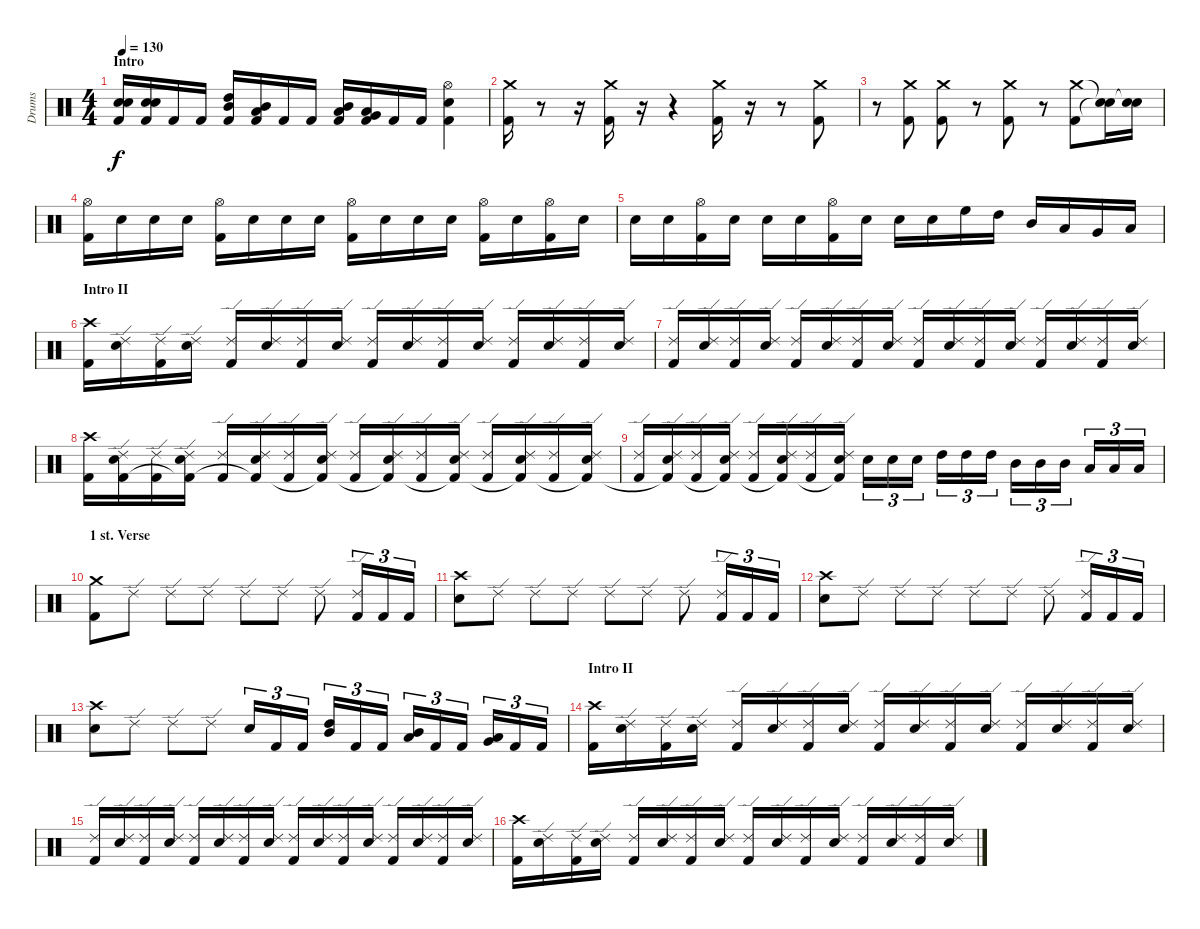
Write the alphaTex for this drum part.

\track ("Drums" "Drums") {instrument percussion}
\staff {score}
\articulation defaults
\ts (4 4)
\section ("" "Intro")
\tempo 130
\clef neutral
\ks c
("Snare (hit) 2" "Snare (hit) 2" "Kick (hit) 2").16{dy f} ("Snare (hit) 2" "Snare (hit) 2" "Kick (hit) 2").16 "Kick (hit) 2".16 "Kick (hit) 2".16 ("High Tom (hit)" "Mid Tom (hit)" "Kick (hit) 2").16 ("Mid Tom (hit)" "Low Tom (hit)" "Kick (hit) 2").16 "Kick (hit) 2".16 "Kick (hit) 2".16 ("Mid Tom (hit)" "Low Tom (hit)" "Kick (hit) 2").16 ("Low Tom (hit)" "Very Low Tom (hit)" "Kick (hit) 2").16 "Kick (hit) 2".16 "Kick (hit) 2".16 ("Hi-Hat (open)" "Snare (hit) 2" "Kick (hit) 2").4 |
("Crash medium (hit)" "Kick (hit) 2").16 r.8 r.16 ("Crash medium (hit)" "Kick (hit) 2").16 r.16 r.4 ("Crash medium (hit)" "Kick (hit) 2").16 r.16 r.8 ("Crash medium (hit)" "Kick (hit) 2").8 |
r.8 ("Crash medium (hit)" "Kick (hit) 2").8 ("Crash medium (hit)" "Kick (hit) 2").8 r.8 ("Crash medium (hit)" "Kick (hit) 2").8 r.8 ("Crash medium (hit)" "Kick (hit) 2").8 ("Snare (hit)"{t} "Snare (hit)"{t}).16 ("Snare (hit)"{t} "Snare (hit) 2").16 |
("Hi-Hat (open)" "Kick (hit) 2").16 "Snare (hit) 2".16 "Snare (hit) 2".16 "Snare (hit) 2".16 ("Hi-Hat (open)" "Kick (hit) 2").16 "Snare (hit) 2".16 "Snare (hit) 2".16 "Snare (hit) 2".16 ("Hi-Hat (open)" "Kick (hit) 2").16 "Snare (hit) 2".16 "Snare (hit) 2".16 "Snare (hit) 2".16 ("Hi-Hat (open)" "Kick (hit) 2").16 "Snare (hit) 2".16 ("Hi-Hat (open)" "Kick (hit) 2").16 "Snare (hit) 2".16 |
"Snare (hit) 2".16 "Snare (hit) 2".16 ("Hi-Hat (open)" "Kick (hit) 2").16 "Snare (hit) 2".16 "Snare (hit) 2".16 "Snare (hit) 2".16 ("Hi-Hat (open)" "Kick (hit) 2").16 "Snare (hit) 2".16 "Snare (hit) 2".16 "Snare (hit) 2".16 "High Floor Tom (hit)".16 "High Tom (hit)".16 "Mid Tom (hit)".16 "Low Tom (hit)".16 "Very Low Tom (hit)".16 "Low Floor Tom (hit)".16 |
\section ("" "Intro II")
("Crash high (hit)" "Kick (hit) 2").16 ("Ride (edge) 2" "Snare (hit) 2").16 ("Ride (edge) 2" "Kick (hit) 2").16 ("Ride (edge) 2" "Snare (hit) 2").16 ("Ride (edge) 2" "Kick (hit) 2").16 ("Ride (edge) 2" "Snare (hit) 2").16 ("Ride (edge) 2" "Kick (hit) 2").16 ("Ride (edge) 2" "Snare (hit) 2").16 ("Ride (edge) 2" "Kick (hit) 2").16 ("Ride (edge) 2" "Snare (hit) 2").16 ("Ride (edge) 2" "Kick (hit) 2").16 ("Ride (edge) 2" "Snare (hit) 2").16 ("Ride (edge) 2" "Kick (hit) 2").16 ("Ride (edge) 2" "Snare (hit) 2").16 ("Ride (edge) 2" "Kick (hit) 2").16 ("Ride (edge) 2" "Snare (hit) 2").16 |
("Ride (edge) 2" "Kick (hit) 2").16 ("Ride (edge) 2" "Snare (hit) 2").16 ("Ride (edge) 2" "Kick (hit) 2").16 ("Ride (edge) 2" "Snare (hit) 2").16 ("Ride (edge) 2" "Kick (hit) 2").16 ("Ride (edge) 2" "Snare (hit) 2").16 ("Ride (edge) 2" "Kick (hit) 2").16 ("Ride (edge) 2" "Snare (hit) 2").16 ("Ride (edge) 2" "Kick (hit) 2").16 ("Ride (edge) 2" "Snare (hit) 2").16 ("Ride (edge) 2" "Kick (hit) 2").16 ("Ride (edge) 2" "Snare (hit) 2").16 ("Ride (edge) 2" "Kick (hit) 2").16 ("Ride (edge) 2" "Snare (hit) 2").16 ("Ride (edge) 2" "Kick (hit) 2").16 ("Ride (edge) 2" "Snare (hit) 2").16 |
("Crash high (hit)" "Kick (hit) 2").16 ("Ride (edge) 2" "Snare (hit) 2" "Kick (hit) 2").16 ("Ride (edge) 2" "Kick (hit) 2").16 ("Ride (edge) 2" "Snare (hit) 2" "Kick (hit) 2"{t}).16 ("Ride (edge) 2" "Kick (hit) 2").16 ("Ride (edge) 2" "Snare (hit) 2" "Kick (hit) 2"{t}).16 ("Ride (edge) 2" "Kick (hit) 2").16 ("Ride (edge) 2" "Snare (hit) 2" "Kick (hit) 2"{t}).16 ("Ride (edge) 2" "Kick (hit) 2").16 ("Ride (edge) 2" "Snare (hit) 2" "Kick (hit) 2"{t}).16 ("Ride (edge) 2" "Kick (hit) 2").16 ("Ride (edge) 2" "Snare (hit) 2" "Kick (hit) 2"{t}).16 ("Ride (edge) 2" "Kick (hit) 2").16 ("Ride (edge) 2" "Snare (hit) 2" "Kick (hit) 2"{t}).16 ("Ride (edge) 2" "Kick (hit) 2").16 ("Ride (edge) 2" "Snare (hit) 2" "Kick (hit) 2"{t}).16 |
("Ride (edge) 2" "Kick (hit) 2").16 ("Ride (edge) 2" "Snare (hit) 2" "Kick (hit) 2"{t}).16 ("Ride (edge) 2" "Kick (hit) 2").16 ("Ride (edge) 2" "Snare (hit) 2" "Kick (hit) 2"{t}).16 ("Ride (edge) 2" "Kick (hit) 2").16 ("Ride (edge) 2" "Snare (hit) 2" "Kick (hit) 2"{t}).16 ("Ride (edge) 2" "Kick (hit) 2").16 ("Ride (edge) 2" "Snare (hit) 2" "Kick (hit) 2"{t}).16 "Snare (hit) 2".16{tu (3 2)} "Snare (hit) 2".16{tu (3 2)} "Snare (hit) 2".16{tu (3 2)} "High Tom (hit)".16{tu (3 2)} "High Tom (hit)".16{tu (3 2)} "High Tom (hit)".16{tu (3 2)} "Mid Tom (hit)".16{tu (3 2)} "Mid Tom (hit)".16{tu (3 2)} "Mid Tom (hit)".16{tu (3 2)} "Low Tom (hit)".16{tu (3 2)} "Low Tom (hit)".16{tu (3 2)} "Low Tom (hit)".16{tu (3 2)} |
\section ("" "1 st. Verse")
("Crash medium (hit)" "Kick (hit) 2").8 "Ride (edge) 2".8 "Ride (edge) 2".8 "Ride (edge) 2".8 "Ride (edge) 2".8 "Ride (edge) 2".8 "Ride (edge) 2".8 ("Ride (edge) 2" "Kick (hit) 2").16{tu (3 2)} "Kick (hit) 2".16{tu (3 2)} "Kick (hit) 2".16{tu (3 2)} |
("Crash high (hit)" "Snare (hit) 2").8 "Ride (edge) 2".8 "Ride (edge) 2".8 "Ride (edge) 2".8 "Ride (edge) 2".8 "Ride (edge) 2".8 "Ride (edge) 2".8 ("Ride (edge) 2" "Kick (hit) 2").16{tu (3 2)} "Kick (hit) 2".16{tu (3 2)} "Kick (hit) 2".16{tu (3 2)} |
("Crash high (hit)" "Snare (hit) 2").8 "Ride (edge) 2".8 "Ride (edge) 2".8 "Ride (edge) 2".8 "Ride (edge) 2".8 "Ride (edge) 2".8 "Ride (edge) 2".8 ("Ride (edge) 2" "Kick (hit) 2").16{tu (3 2)} "Kick (hit) 2".16{tu (3 2)} "Kick (hit) 2".16{tu (3 2)} |
("Crash high (hit)" "Snare (hit) 2").8 "Ride (edge) 2".8 "Ride (edge) 2".8 "Ride (edge) 2".8 "Snare (hit) 2".16{tu (3 2)} "Kick (hit) 2".16{tu (3 2)} "Kick (hit) 2".16{tu (3 2)} ("Mid Tom (hit)" "High Tom (hit)").16{tu (3 2)} "Kick (hit) 2".16{tu (3 2)} "Kick (hit) 2".16{tu (3 2)} ("Mid Tom (hit)" "Low Tom (hit)").16{tu (3 2)} "Kick (hit) 2".16{tu (3 2)} "Kick (hit) 2".16{tu (3 2)} ("Very Low Tom (hit)" "Low Floor Tom (hit)").16{tu (3 2)} "Kick (hit) 2".16{tu (3 2)} "Kick (hit) 2".16{tu (3 2)} |
\section ("" "Intro II")
("Crash high (hit)" "Kick (hit) 2").16 ("Ride (edge) 2" "Snare (hit) 2").16 ("Ride (edge) 2" "Kick (hit) 2").16 ("Ride (edge) 2" "Snare (hit) 2").16 ("Ride (edge) 2" "Kick (hit) 2").16 ("Ride (edge) 2" "Snare (hit) 2").16 ("Ride (edge) 2" "Kick (hit) 2").16 ("Ride (edge) 2" "Snare (hit) 2").16 ("Ride (edge) 2" "Kick (hit) 2").16 ("Ride (edge) 2" "Snare (hit) 2").16 ("Ride (edge) 2" "Kick (hit) 2").16 ("Ride (edge) 2" "Snare (hit) 2").16 ("Ride (edge) 2" "Kick (hit) 2").16 ("Ride (edge) 2" "Snare (hit) 2").16 ("Ride (edge) 2" "Kick (hit) 2").16 ("Ride (edge) 2" "Snare (hit) 2").16 |
("Ride (edge) 2" "Kick (hit) 2").16 ("Ride (edge) 2" "Snare (hit) 2").16 ("Ride (edge) 2" "Kick (hit) 2").16 ("Ride (edge) 2" "Snare (hit) 2").16 ("Ride (edge) 2" "Kick (hit) 2").16 ("Ride (edge) 2" "Snare (hit) 2").16 ("Ride (edge) 2" "Kick (hit) 2").16 ("Ride (edge) 2" "Snare (hit) 2").16 ("Ride (edge) 2" "Kick (hit) 2").16 ("Ride (edge) 2" "Snare (hit) 2").16 ("Ride (edge) 2" "Kick (hit) 2").16 ("Ride (edge) 2" "Snare (hit) 2").16 ("Ride (edge) 2" "Kick (hit) 2").16 ("Ride (edge) 2" "Snare (hit) 2").16 ("Ride (edge) 2" "Kick (hit) 2").16 ("Ride (edge) 2" "Snare (hit) 2").16 |
("Crash high (hit)" "Kick (hit) 2").16 ("Ride (edge) 2" "Snare (hit) 2").16 ("Ride (edge) 2" "Kick (hit) 2").16 ("Ride (edge) 2" "Snare (hit) 2").16 ("Ride (edge) 2" "Kick (hit) 2").16 ("Ride (edge) 2" "Snare (hit) 2").16 ("Ride (edge) 2" "Kick (hit) 2").16 ("Ride (edge) 2" "Snare (hit) 2").16 ("Ride (edge) 2" "Kick (hit) 2").16 ("Ride (edge) 2" "Snare (hit) 2").16 ("Ride (edge) 2" "Kick (hit) 2").16 ("Ride (edge) 2" "Snare (hit) 2").16 ("Ride (edge) 2" "Kick (hit) 2").16 ("Ride (edge) 2" "Snare (hit) 2").16 ("Ride (edge) 2" "Kick (hit) 2").16 ("Ride (edge) 2" "Snare (hit) 2").16
